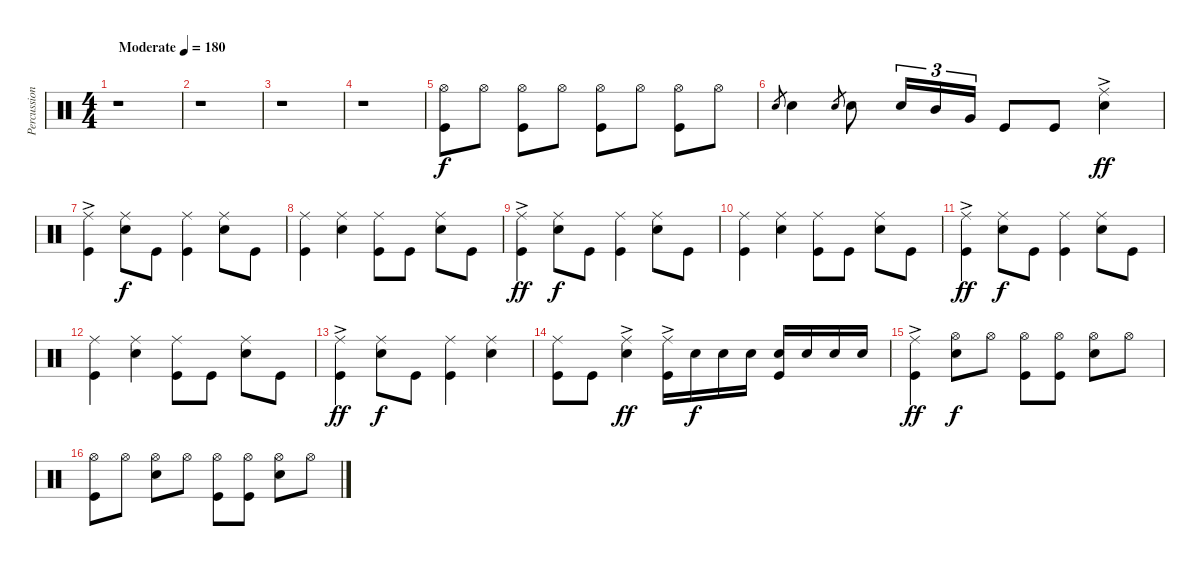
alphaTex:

\track ("Percussion" "Percussion") {instrument percussion}
\staff {score}
\articulation defaults
\ts (4 4)
\tempo (180 "Moderate")
\clef neutral
\ks c
r.1{dy f} |
r.1 |
r.1 |
r.1 |
("Hi-Hat (open)" "Kick (hit)").8 "Hi-Hat (open)".8 ("Hi-Hat (open)" "Kick (hit)").8 "Hi-Hat (open)".8 ("Hi-Hat (open)" "Kick (hit)").8 "Hi-Hat (open)".8 ("Hi-Hat (open)" "Kick (hit)").8 "Hi-Hat (open)".8 |
"Snare (hit) 2".8{gr} "Snare (hit) 2".4 "Snare (hit) 2".8{gr} "Snare (hit) 2".8 "Snare (hit) 2".16{tu (3 2)} "Mid Tom (hit)".16{tu (3 2)} "Very Low Tom (hit)".16{tu (3 2)} "Kick (hit)".8 "Kick (hit)".8 ("Ride (middle)"{ac} "Snare (hit) 2").4{dy ff} |
("Ride (middle)"{ac} "Kick (hit)").4 ("Ride (middle)" "Snare (hit) 2").8{dy f} "Kick (hit)".8 ("Ride (middle)" "Kick (hit)").4 ("Ride (middle)" "Snare (hit) 2").8 "Kick (hit)".8 |
("Ride (middle)" "Kick (hit)").4 ("Ride (middle)" "Snare (hit) 2").4 ("Ride (middle)" "Kick (hit)").8 "Kick (hit)".8 ("Ride (middle)" "Snare (hit) 2").8 "Kick (hit)".8 |
("Ride (middle)"{ac} "Kick (hit)").4{dy ff} ("Ride (middle)" "Snare (hit) 2").8{dy f} "Kick (hit)".8 ("Ride (middle)" "Kick (hit)").4 ("Ride (middle)" "Snare (hit) 2").8 "Kick (hit)".8 |
("Ride (middle)" "Kick (hit)").4 ("Ride (middle)" "Snare (hit) 2").4 ("Ride (middle)" "Kick (hit)").8 "Kick (hit)".8 ("Ride (middle)" "Snare (hit) 2").8 "Kick (hit)".8 |
("Ride (middle)"{ac} "Kick (hit)").4{dy ff} ("Ride (middle)" "Snare (hit) 2").8{dy f} "Kick (hit)".8 ("Ride (middle)" "Kick (hit)").4 ("Ride (middle)" "Snare (hit) 2").8 "Kick (hit)".8 |
("Ride (middle)" "Kick (hit)").4 ("Ride (middle)" "Snare (hit) 2").4 ("Ride (middle)" "Kick (hit)").8 "Kick (hit)".8 ("Ride (middle)" "Snare (hit) 2").8 "Kick (hit)".8 |
("Ride (middle)"{ac} "Kick (hit)").4{dy ff} ("Ride (middle)" "Snare (hit) 2").8{dy f} "Kick (hit)".8 ("Ride (middle)" "Kick (hit)").4 ("Ride (middle)" "Snare (hit) 2").4 |
("Ride (middle)" "Kick (hit)").8 "Kick (hit)".8 ("Ride (middle)"{ac} "Snare (hit) 2").4{dy ff} ("Ride (middle)"{ac} "Kick (hit)").16 "Snare (hit) 2".16{dy f} "Snare (hit) 2".16 "Snare (hit) 2".16 ("Snare (hit) 2" "Kick (hit)").16 "Snare (hit) 2".16 "Snare (hit) 2".16 "Snare (hit) 2".16 |
("Ride (middle)"{ac} "Kick (hit)").4{dy ff} ("Hi-Hat (open)" "Snare (hit) 2").8{dy f} "Hi-Hat (open)".8 ("Hi-Hat (open)" "Kick (hit)").8 ("Hi-Hat (open)" "Kick (hit)").8 ("Hi-Hat (open)" "Snare (hit) 2").8 "Hi-Hat (open)".8 |
("Hi-Hat (open)" "Kick (hit)").8 "Hi-Hat (open)".8 ("Hi-Hat (open)" "Snare (hit) 2").8 "Hi-Hat (open)".8 ("Hi-Hat (open)" "Kick (hit)").8 ("Hi-Hat (open)" "Kick (hit)").8 ("Hi-Hat (open)" "Snare (hit) 2").8 "Hi-Hat (open)".8
